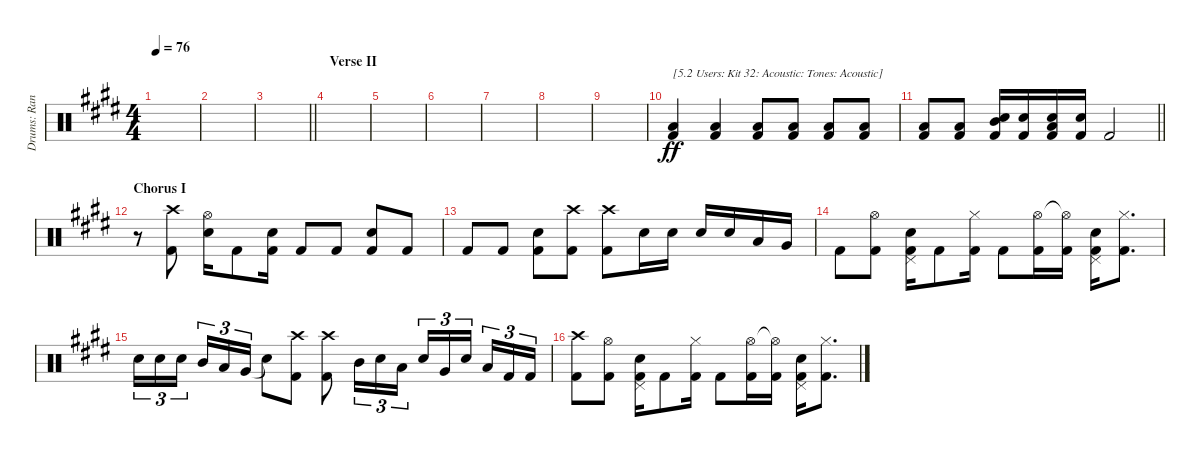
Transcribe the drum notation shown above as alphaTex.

\track ("Drums: Randy" "Drums: Ran") {instrument percussion}
\staff {score}
\articulation defaults
\ts (4 4)
\tempo 76
\clef neutral
\ks e
|
|
\barLineRight lightlight
|
\section ("" "Verse II")
|
|
|
|
|
|
("Low Tom (hit)" "Kick (hit) 2").4{txt "[5.2 Users: Kit 32: Acoustic: Tones: Acoustic]" dy ff} ("Low Tom (hit)" "Kick (hit) 2").4 ("Low Tom (hit)" "Kick (hit) 2").8 ("Low Tom (hit)" "Kick (hit) 2").8 ("Low Tom (hit)" "Kick (hit) 2").8 ("Low Tom (hit)" "Kick (hit) 2").8 |
\barLineRight lightlight
("Low Tom (hit)" "Kick (hit) 2").8 ("Low Tom (hit)" "Kick (hit) 2").8 ("Snare (hit) 2" "Mid Tom (hit)" "Kick (hit) 2").16 ("Snare (hit) 2" "Kick (hit) 2").16 ("Snare (hit) 2" "Low Tom (hit)" "Kick (hit) 2").16 ("Snare (hit) 2" "Kick (hit) 2").16 "Kick (hit) 2".2 |
\section ("" "Chorus I")
r.8 ("Crash high (hit)" "Kick (hit) 2").8 ("Hi-Hat (open)" "Snare (hit) 2").16 "Kick (hit) 2".8 ("Snare (hit) 2" "Kick (hit) 2").16 "Kick (hit) 2".8 "Kick (hit) 2".8 ("Snare (hit) 2" "Kick (hit) 2").8 "Kick (hit) 2".8 |
"Kick (hit) 2".8 "Kick (hit) 2".8 ("Snare (hit) 2" "Kick (hit) 2").8 ("Crash high (hit)" "Kick (hit) 2").8 ("Crash high (hit)" "Kick (hit) 2").8 "Snare (hit) 2".16 "Snare (hit) 2".16 "Snare (hit) 2".16 "Snare (hit) 2".16 "Low Tom (hit)".16 "Very Low Tom (hit)".16 |
"Kick (hit) 2".8 ("Hi-Hat (open)" "Kick (hit) 2").8 ("Pedal Hi-Hat (hit)" "Snare (hit) 2" "Kick (hit) 2").16 "Kick (hit) 2".8 ("Hi-Hat (closed)" "Kick (hit) 2").16 "Kick (hit) 2".8 ("Hi-Hat (open)" "Kick (hit) 2").16 ("Hi-Hat (open)"{t} "Kick (hit) 2").16 ("Pedal Hi-Hat (hit)" "Snare (hit) 2" "Kick (hit) 2").16 ("Hi-Hat (closed)" "Kick (hit) 2").8{d} |
"Snare (hit) 2".16{tu (3 2)} "Snare (hit) 2".16{tu (3 2)} "Snare (hit) 2".16{tu (3 2) beam splitsecondary} "Mid Tom (hit)".16{tu (3 2)} "Low Tom (hit)".16{tu (3 2)} "Very Low Tom (hit)".16{tu (3 2)} "Snare (hit)"{t}.8 ("Crash high (hit)" "Kick (hit) 2").8 ("Crash high (hit)" "Kick (hit) 2").8 "Mid Tom (hit)".16{tu (3 2)} "Snare (hit) 2".16{tu (3 2)} "Low Tom (hit)".16{tu (3 2)} "Snare (hit) 2".16{tu (3 2)} "Very Low Tom (hit)".16{tu (3 2)} "Snare (hit) 2".16{tu (3 2) beam splitsecondary} "Low Floor Tom (hit)".16{tu (3 2)} "Kick (hit) 2".16{tu (3 2)} "Kick (hit) 2".16{tu (3 2)} |
("Crash high (hit)" "Kick (hit) 2").8 ("Hi-Hat (open)" "Kick (hit) 2").8 ("Pedal Hi-Hat (hit)" "Snare (hit) 2" "Kick (hit) 2").16 "Kick (hit) 2".8 ("Hi-Hat (closed)" "Kick (hit) 2").16 "Kick (hit) 2".8 ("Hi-Hat (open)" "Kick (hit) 2").16 ("Hi-Hat (open)"{t} "Kick (hit) 2").16 ("Pedal Hi-Hat (hit)" "Snare (hit) 2" "Kick (hit) 2").16 ("Hi-Hat (closed)" "Kick (hit) 2").8{d}
